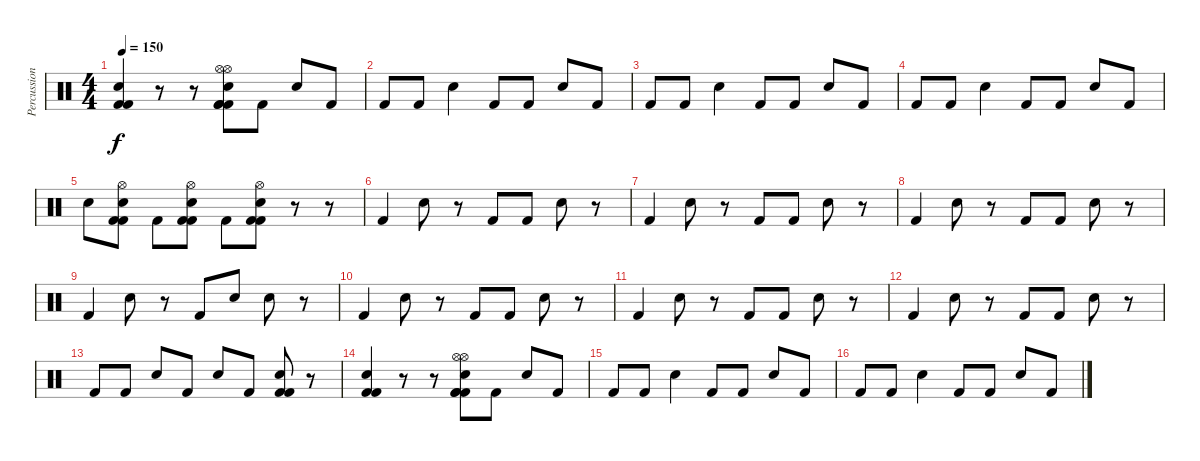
\track ("Percussions" "Percussion") {instrument percussion}
\staff {score}
\articulation defaults
\ts (4 4)
\tempo 150
\clef neutral
\ks c
("Snare (hit) 2" "Kick (hit) 2" "Kick (hit) 2").4{dy f} r.8 r.8 ("Kick (hit) 2" "Hi-Hat (open)" "Kick (hit) 2" "Snare (hit) 2" "Kick (hit) 2" "Hi-Hat (open)").8 "Kick (hit) 2".8 "Snare (hit) 2".8 "Kick (hit) 2".8 |
"Kick (hit) 2".8 "Kick (hit) 2".8 "Snare (hit) 2".4 "Kick (hit) 2".8 "Kick (hit) 2".8 "Snare (hit) 2".8 "Kick (hit) 2".8 |
"Kick (hit) 2".8 "Kick (hit) 2".8 "Snare (hit) 2".4 "Kick (hit) 2".8 "Kick (hit) 2".8 "Snare (hit) 2".8 "Kick (hit) 2".8 |
"Kick (hit) 2".8 "Kick (hit) 2".8 "Snare (hit) 2".4 "Kick (hit) 2".8 "Kick (hit) 2".8 "Snare (hit) 2".8 "Kick (hit) 2".8 |
"Snare (hit) 2".8 ("Snare (hit) 2" "Kick (hit) 2" "Hi-Hat (open)" "Kick (hit) 2").8 "Kick (hit) 2".8 ("Snare (hit) 2" "Hi-Hat (open)" "Kick (hit) 2" "Kick (hit) 2").8 "Kick (hit) 2".8 ("Snare (hit) 2" "Hi-Hat (open)" "Kick (hit) 2" "Kick (hit) 2").8 r.8 r.8 |
"Kick (hit) 2".4 "Snare (hit) 2".8 r.8 "Kick (hit) 2".8 "Kick (hit) 2".8 "Snare (hit) 2".8 r.8 |
"Kick (hit) 2".4 "Snare (hit) 2".8 r.8 "Kick (hit) 2".8 "Kick (hit) 2".8 "Snare (hit) 2".8 r.8 |
"Kick (hit) 2".4 "Snare (hit) 2".8 r.8 "Kick (hit) 2".8 "Kick (hit) 2".8 "Snare (hit) 2".8 r.8 |
"Kick (hit) 2".4 "Snare (hit) 2".8 r.8 "Kick (hit) 2".8 "Snare (hit) 2".8 "Snare (hit) 2".8 r.8 |
"Kick (hit) 2".4 "Snare (hit) 2".8 r.8 "Kick (hit) 2".8 "Kick (hit) 2".8 "Snare (hit) 2".8 r.8 |
"Kick (hit) 2".4 "Snare (hit) 2".8 r.8 "Kick (hit) 2".8 "Kick (hit) 2".8 "Snare (hit) 2".8 r.8 |
"Kick (hit) 2".4 "Snare (hit) 2".8 r.8 "Kick (hit) 2".8 "Kick (hit) 2".8 "Snare (hit) 2".8 r.8 |
"Kick (hit) 2".8 "Kick (hit) 2".8 "Snare (hit) 2".8 "Kick (hit) 2".8 "Snare (hit) 2".8 "Kick (hit) 2".8 ("Snare (hit) 2" "Kick (hit) 2" "Kick (hit) 2").8 r.8 |
("Snare (hit) 2" "Kick (hit) 2" "Kick (hit) 2").4 r.8 r.8 ("Kick (hit) 2" "Hi-Hat (open)" "Kick (hit) 2" "Snare (hit) 2" "Kick (hit) 2" "Hi-Hat (open)").8 "Kick (hit) 2".8 "Snare (hit) 2".8 "Kick (hit) 2".8 |
"Kick (hit) 2".8 "Kick (hit) 2".8 "Snare (hit) 2".4 "Kick (hit) 2".8 "Kick (hit) 2".8 "Snare (hit) 2".8 "Kick (hit) 2".8 |
"Kick (hit) 2".8 "Kick (hit) 2".8 "Snare (hit) 2".4 "Kick (hit) 2".8 "Kick (hit) 2".8 "Snare (hit) 2".8 "Kick (hit) 2".8
